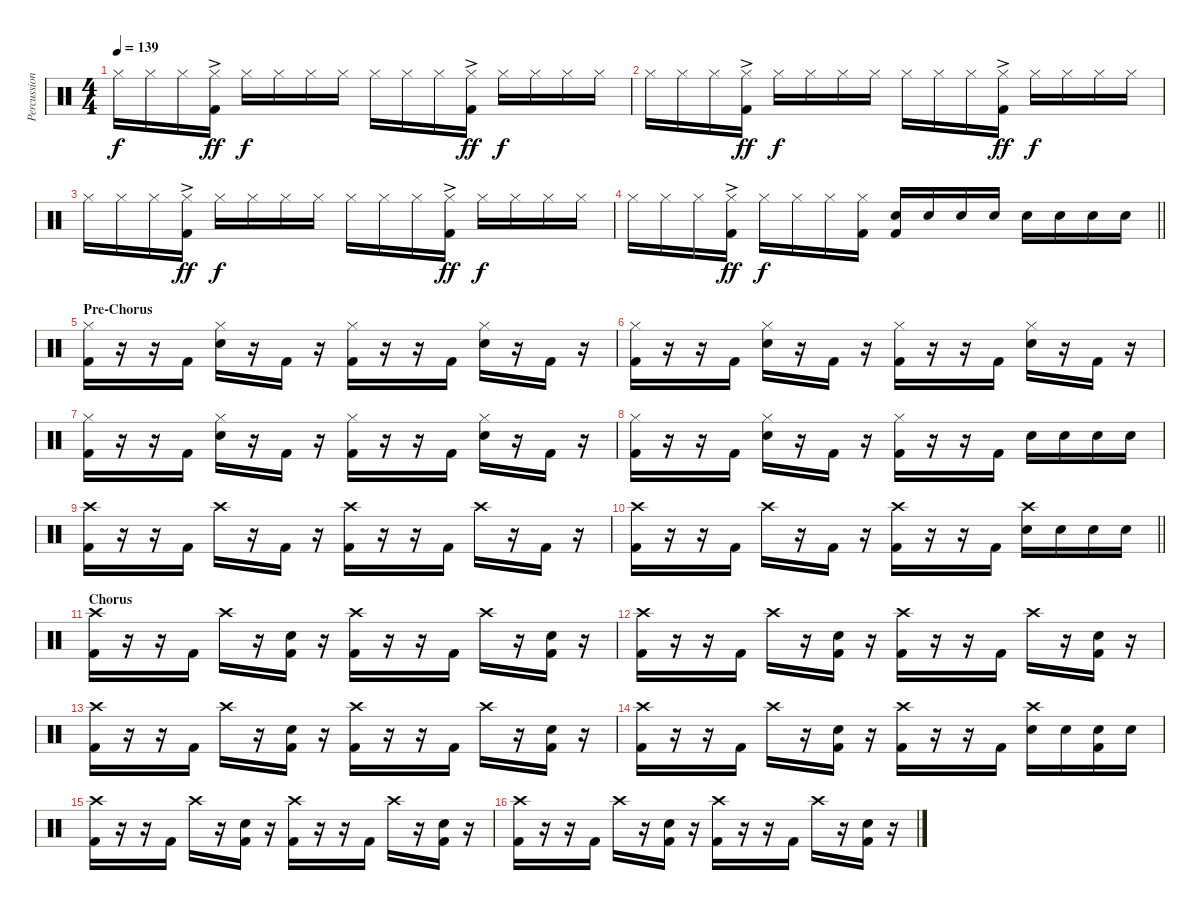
\track ("Percussion" "Percussion") {instrument percussion}
\staff {score}
\articulation defaults
\ts (4 4)
\tempo 139
\clef neutral
\ks c "Hi-Hat (closed)".16{dy f} "Hi-Hat (closed)".16 "Hi-Hat (closed)".16
("Hi-Hat (closed)"{ac} "Kick (hit) 2"{ac}).16{dy ff} "Hi-Hat (closed)".16{dy f} "Hi-Hat (closed)".16 "Hi-Hat (closed)".16 "Hi-Hat (closed)".16 "Hi-Hat (closed)".16 "Hi-Hat (closed)".16 "Hi-Hat (closed)".16 ("Hi-Hat (closed)"{ac} "Kick (hit) 2"{ac}).16{dy ff} "Hi-Hat (closed)".16{dy f} "Hi-Hat (closed)".16 "Hi-Hat (closed)".16 "Hi-Hat (closed)".16 |
"Hi-Hat (closed)".16 "Hi-Hat (closed)".16 "Hi-Hat (closed)".16 ("Hi-Hat (closed)"{ac} "Kick (hit) 2"{ac}).16{dy ff} "Hi-Hat (closed)".16{dy f} "Hi-Hat (closed)".16 "Hi-Hat (closed)".16 "Hi-Hat (closed)".16 "Hi-Hat (closed)".16 "Hi-Hat (closed)".16 "Hi-Hat (closed)".16 ("Hi-Hat (closed)"{ac} "Kick (hit) 2"{ac}).16{dy ff} "Hi-Hat (closed)".16{dy f} "Hi-Hat (closed)".16 "Hi-Hat (closed)".16 "Hi-Hat (closed)".16 |
"Hi-Hat (closed)".16 "Hi-Hat (closed)".16 "Hi-Hat (closed)".16 ("Hi-Hat (closed)"{ac} "Kick (hit) 2"{ac}).16{dy ff} "Hi-Hat (closed)".16{dy f} "Hi-Hat (closed)".16 "Hi-Hat (closed)".16 "Hi-Hat (closed)".16 "Hi-Hat (closed)".16 "Hi-Hat (closed)".16 "Hi-Hat (closed)".16 ("Hi-Hat (closed)"{ac} "Kick (hit) 2"{ac}).16{dy ff} "Hi-Hat (closed)".16{dy f} "Hi-Hat (closed)".16 "Hi-Hat (closed)".16 "Hi-Hat (closed)".16 |
\barLineRight lightlight "Hi-Hat (closed)".16 "Hi-Hat (closed)".16 "Hi-Hat (closed)".16
("Hi-Hat (closed)"{ac} "Kick (hit) 2"{ac}).16{dy ff} "Hi-Hat (closed)".16{dy f} "Hi-Hat (closed)".16 "Hi-Hat (closed)".16 ("Hi-Hat (closed)" "Kick (hit) 2").16 ("Snare (hit) 2" "Kick (hit) 2").16 "Snare (hit) 2".16 "Snare (hit) 2".16 "Snare (hit) 2".16 "Snare (hit) 2".16 "Snare (hit) 2".16 "Snare (hit) 2".16 "Snare (hit) 2".16 |
\section ("" "Pre-Chorus")
("Hi-Hat (closed)" "Kick (hit) 2").16 r.16 r.16 "Kick (hit) 2".16 ("Hi-Hat (closed)" "Snare (hit) 2").16 r.16 "Kick (hit) 2".16 r.16 ("Hi-Hat (closed)" "Kick (hit) 2").16 r.16 r.16 "Kick (hit) 2".16 ("Hi-Hat (closed)" "Snare (hit) 2").16 r.16 "Kick (hit) 2".16 r.16 |
("Hi-Hat (closed)" "Kick (hit) 2").16 r.16 r.16 "Kick (hit) 2".16 ("Hi-Hat (closed)" "Snare (hit) 2").16 r.16 "Kick (hit) 2".16 r.16 ("Hi-Hat (closed)" "Kick (hit) 2").16 r.16 r.16 "Kick (hit) 2".16 ("Hi-Hat (closed)" "Snare (hit) 2").16 r.16 "Kick (hit) 2".16 r.16 |
("Hi-Hat (closed)" "Kick (hit) 2").16 r.16 r.16 "Kick (hit) 2".16 ("Hi-Hat (closed)" "Snare (hit) 2").16 r.16 "Kick (hit) 2".16 r.16 ("Hi-Hat (closed)" "Kick (hit) 2").16 r.16 r.16 "Kick (hit) 2".16 ("Hi-Hat (closed)" "Snare (hit) 2").16 r.16 "Kick (hit) 2".16 r.16 |
("Hi-Hat (closed)" "Kick (hit) 2").16 r.16 r.16 "Kick (hit) 2".16 ("Hi-Hat (closed)" "Snare (hit) 2").16 r.16 "Kick (hit) 2".16 r.16 ("Hi-Hat (closed)" "Kick (hit) 2").16 r.16 r.16 "Kick (hit) 2".16 "Snare (hit) 2".16 "Snare (hit) 2".16 "Snare (hit) 2".16 "Snare (hit) 2".16 |
("Crash high (hit)" "Kick (hit) 2").16 r.16 r.16 "Kick (hit) 2".16 "Crash high (hit)".16 r.16 "Kick (hit) 2".16 r.16 ("Crash high (hit)" "Kick (hit) 2").16 r.16 r.16 "Kick (hit) 2".16 "Crash high (hit)".16 r.16 "Kick (hit) 2".16 r.16 |
\barLineRight lightlight
("Crash high (hit)" "Kick (hit) 2").16 r.16 r.16 "Kick (hit) 2".16 "Crash high (hit)".16 r.16 "Kick (hit) 2".16 r.16 ("Crash high (hit)" "Kick (hit) 2").16 r.16 r.16 "Kick (hit) 2".16 ("Crash high (hit)" "Snare (hit) 2").16 "Snare (hit) 2".16 "Snare (hit) 2".16 "Snare (hit) 2".16 |
\section ("" "Chorus")
("Crash high (hit)" "Kick (hit) 2").16 r.16 r.16 "Kick (hit) 2".16 "Crash high (hit)".16 r.16 ("Snare (hit) 2" "Kick (hit) 2").16 r.16 ("Crash high (hit)" "Kick (hit) 2").16 r.16 r.16 "Kick (hit) 2".16 "Crash high (hit)".16 r.16 ("Snare (hit) 2" "Kick (hit) 2").16 r.16 |
("Crash high (hit)" "Kick (hit) 2").16 r.16 r.16 "Kick (hit) 2".16 "Crash high (hit)".16 r.16 ("Snare (hit) 2" "Kick (hit) 2").16 r.16 ("Crash high (hit)" "Kick (hit) 2").16 r.16 r.16 "Kick (hit) 2".16 "Crash high (hit)".16 r.16 ("Snare (hit) 2" "Kick (hit) 2").16 r.16 |
("Crash high (hit)" "Kick (hit) 2").16 r.16 r.16 "Kick (hit) 2".16 "Crash high (hit)".16 r.16 ("Snare (hit) 2" "Kick (hit) 2").16 r.16 ("Crash high (hit)" "Kick (hit) 2").16 r.16 r.16 "Kick (hit) 2".16 "Crash high (hit)".16 r.16 ("Snare (hit) 2" "Kick (hit) 2").16 r.16 |
("Crash high (hit)" "Kick (hit) 2").16 r.16 r.16 "Kick (hit) 2".16 "Crash high (hit)".16 r.16 ("Snare (hit) 2" "Kick (hit) 2").16 r.16 ("Crash high (hit)" "Kick (hit) 2").16 r.16 r.16 "Kick (hit) 2".16 ("Crash high (hit)" "Snare (hit) 2").16 "Snare (hit) 2".16 ("Snare (hit) 2" "Kick (hit) 2").16 "Snare (hit) 2".16 |
("Crash high (hit)" "Kick (hit) 2").16 r.16 r.16 "Kick (hit) 2".16 "Crash high (hit)".16 r.16 ("Snare (hit) 2" "Kick (hit) 2").16 r.16 ("Crash high (hit)" "Kick (hit) 2").16 r.16 r.16 "Kick (hit) 2".16 "Crash high (hit)".16 r.16 ("Snare (hit) 2" "Kick (hit) 2").16 r.16 |
("Crash high (hit)" "Kick (hit) 2").16 r.16 r.16 "Kick (hit) 2".16 "Crash high (hit)".16 r.16 ("Snare (hit) 2" "Kick (hit) 2").16 r.16 ("Crash high (hit)" "Kick (hit) 2").16 r.16 r.16 "Kick (hit) 2".16 "Crash high (hit)".16 r.16 ("Snare (hit) 2" "Kick (hit) 2").16 r.16
